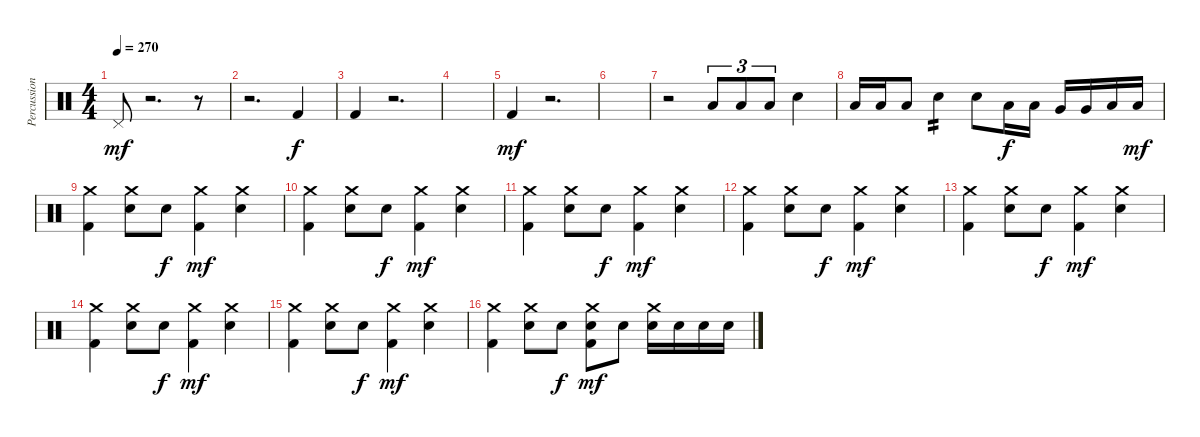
\track ("Percussion" "Percussion") {instrument percussion}
\staff {score}
\articulation defaults
\ts (4 4)
\tempo 270
\clef neutral
\ks c "Pedal Hi-Hat (hit)".8{dy mf}
r.2{d} r.8 |
r.2{d} "Kick (hit) 2".4{dy f} |
"Kick (hit) 2".4 r.2{d} |
|
"Kick (hit) 2".4{dy mf} r.2{d} |
|
r.2 "Low Tom (hit)".8{tu (3 2)} "Low Tom (hit)".8{tu (3 2)} "Low Tom (hit)".8{tu (3 2)} "Electric Snare (hit)".4 |
"Low Tom (hit)".16 "Low Tom (hit)".16 "Low Tom (hit)".8 "Electric Snare (hit)".4{tp 2} "Electric Snare (hit)".8 "Low Tom (hit)".16{dy f} "Low Tom (hit)".16 "Very Low Tom (hit)".16 "Very Low Tom (hit)".16 "Low Floor Tom (hit)".16 "Low Floor Tom (hit)".16{dy mf} |
("Crash medium (hit)" "Kick (hit) 2").4 ("Crash medium (hit)" "Electric Snare (hit)").8 "Electric Snare (hit)".8{dy f} ("Crash medium (hit)" "Kick (hit) 2").4{dy mf} ("Crash medium (hit)" "Electric Snare (hit)").4 |
("Crash medium (hit)" "Kick (hit) 2").4 ("Crash medium (hit)" "Electric Snare (hit)").8 "Electric Snare (hit)".8{dy f} ("Crash medium (hit)" "Kick (hit) 2").4{dy mf} ("Crash medium (hit)" "Electric Snare (hit)").4 |
("Crash medium (hit)" "Kick (hit) 2").4 ("Crash medium (hit)" "Electric Snare (hit)").8 "Electric Snare (hit)".8{dy f} ("Crash medium (hit)" "Kick (hit) 2").4{dy mf} ("Crash medium (hit)" "Electric Snare (hit)").4 |
("Crash medium (hit)" "Kick (hit) 2").4 ("Crash medium (hit)" "Electric Snare (hit)").8 "Electric Snare (hit)".8{dy f} ("Crash medium (hit)" "Kick (hit) 2").4{dy mf} ("Crash medium (hit)" "Electric Snare (hit)").4 |
("Crash medium (hit)" "Kick (hit) 2").4 ("Crash medium (hit)" "Electric Snare (hit)").8 "Electric Snare (hit)".8{dy f} ("Crash medium (hit)" "Kick (hit) 2").4{dy mf} ("Crash medium (hit)" "Electric Snare (hit)").4 |
("Crash medium (hit)" "Kick (hit) 2").4 ("Crash medium (hit)" "Electric Snare (hit)").8 "Electric Snare (hit)".8{dy f} ("Crash medium (hit)" "Kick (hit) 2").4{dy mf} ("Crash medium (hit)" "Electric Snare (hit)").4 |
("Crash medium (hit)" "Kick (hit) 2").4 ("Crash medium (hit)" "Electric Snare (hit)").8 "Electric Snare (hit)".8{dy f} ("Crash medium (hit)" "Kick (hit) 2").4{dy mf} ("Crash medium (hit)" "Electric Snare (hit)").4 |
("Crash medium (hit)" "Kick (hit) 2").4 ("Crash medium (hit)" "Electric Snare (hit)").8 "Electric Snare (hit)".8{dy f} ("Crash medium (hit)" "Electric Snare (hit)" "Kick (hit) 2").8{dy mf} "Electric Snare (hit)".8 ("Crash medium (hit)" "Electric Snare (hit)").16 "Electric Snare (hit)".16 "Electric Snare (hit)".16 "Electric Snare (hit)".16
